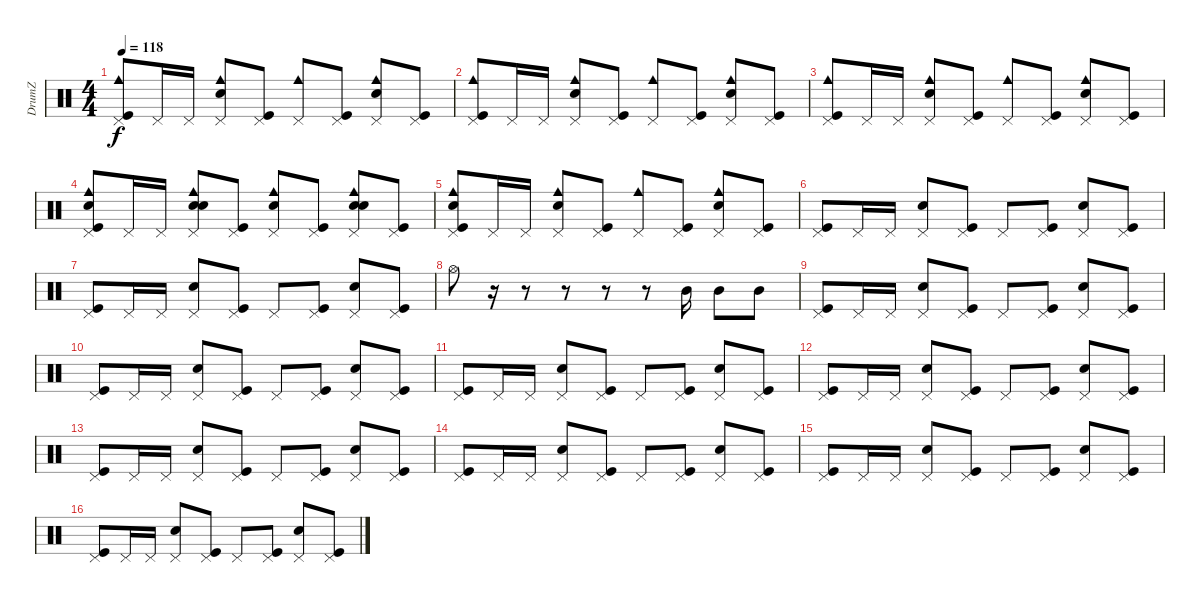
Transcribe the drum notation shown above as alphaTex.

\track ("DrumZ" "DrumZ") {instrument percussion}
\staff {score}
\articulation defaults
\ts (4 4)
\tempo 118
\clef neutral
\ks c
("Cowbell medium (hit)" "Pedal Hi-Hat (hit)" "Kick (hit)").8{dy f} "Pedal Hi-Hat (hit)".16 "Pedal Hi-Hat (hit)".16 ("Cowbell medium (hit)" "Pedal Hi-Hat (hit)" "Snare (hit) 2").8 ("Pedal Hi-Hat (hit)" "Kick (hit)").8 ("Cowbell medium (hit)" "Pedal Hi-Hat (hit)").8 ("Pedal Hi-Hat (hit)" "Kick (hit)").8 ("Cowbell medium (hit)" "Pedal Hi-Hat (hit)" "Snare (hit) 2").8 ("Pedal Hi-Hat (hit)" "Kick (hit)").8 |
("Cowbell medium (hit)" "Pedal Hi-Hat (hit)" "Kick (hit)").8 "Pedal Hi-Hat (hit)".16 "Pedal Hi-Hat (hit)".16 ("Cowbell medium (hit)" "Pedal Hi-Hat (hit)" "Snare (hit) 2").8 ("Pedal Hi-Hat (hit)" "Kick (hit)").8 ("Cowbell medium (hit)" "Pedal Hi-Hat (hit)").8 ("Pedal Hi-Hat (hit)" "Kick (hit)").8 ("Cowbell medium (hit)" "Pedal Hi-Hat (hit)" "Snare (hit) 2").8 ("Pedal Hi-Hat (hit)" "Kick (hit)").8 |
("Cowbell medium (hit)" "Pedal Hi-Hat (hit)" "Kick (hit)").8 "Pedal Hi-Hat (hit)".16 "Pedal Hi-Hat (hit)".16 ("Cowbell medium (hit)" "Pedal Hi-Hat (hit)" "Snare (hit) 2").8 ("Pedal Hi-Hat (hit)" "Kick (hit)").8 ("Cowbell medium (hit)" "Pedal Hi-Hat (hit)").8 ("Pedal Hi-Hat (hit)" "Kick (hit)").8 ("Cowbell medium (hit)" "Pedal Hi-Hat (hit)" "Snare (hit) 2").8 ("Pedal Hi-Hat (hit)" "Kick (hit)").8 |
("Hand Clap (hit)" "Cowbell medium (hit)" "Pedal Hi-Hat (hit)" "Kick (hit)").8 "Pedal Hi-Hat (hit)".16 "Pedal Hi-Hat (hit)".16 ("Hand Clap (hit)" "Cowbell medium (hit)" "Pedal Hi-Hat (hit)" "Snare (hit) 2").8 ("Pedal Hi-Hat (hit)" "Kick (hit)").8 ("Hand Clap (hit)" "Cowbell medium (hit)" "Pedal Hi-Hat (hit)").8 ("Pedal Hi-Hat (hit)" "Kick (hit)").8 ("Hand Clap (hit)" "Cowbell medium (hit)" "Pedal Hi-Hat (hit)" "Snare (hit) 2").8 ("Pedal Hi-Hat (hit)" "Kick (hit)").8 |
("Hand Clap (hit)" "Cowbell medium (hit)" "Pedal Hi-Hat (hit)" "Kick (hit)").8 "Pedal Hi-Hat (hit)".16 "Pedal Hi-Hat (hit)".16 ("Cowbell medium (hit)" "Pedal Hi-Hat (hit)" "Snare (hit) 2").8 ("Pedal Hi-Hat (hit)" "Kick (hit)").8 ("Cowbell medium (hit)" "Pedal Hi-Hat (hit)").8 ("Pedal Hi-Hat (hit)" "Kick (hit)").8 ("Cowbell medium (hit)" "Pedal Hi-Hat (hit)" "Snare (hit) 2").8 ("Pedal Hi-Hat (hit)" "Kick (hit)").8 |
("Pedal Hi-Hat (hit)" "Kick (hit)").8 "Pedal Hi-Hat (hit)".16 "Pedal Hi-Hat (hit)".16 ("Pedal Hi-Hat (hit)" "Snare (hit) 2").8 ("Pedal Hi-Hat (hit)" "Kick (hit)").8 "Pedal Hi-Hat (hit)".8 ("Pedal Hi-Hat (hit)" "Kick (hit)").8 ("Pedal Hi-Hat (hit)" "Snare (hit) 2").8 ("Pedal Hi-Hat (hit)" "Kick (hit)").8 |
("Pedal Hi-Hat (hit)" "Kick (hit)").8 "Pedal Hi-Hat (hit)".16 "Pedal Hi-Hat (hit)".16 ("Pedal Hi-Hat (hit)" "Snare (hit) 2").8 ("Pedal Hi-Hat (hit)" "Kick (hit)").8 "Pedal Hi-Hat (hit)".8 ("Pedal Hi-Hat (hit)" "Kick (hit)").8 ("Pedal Hi-Hat (hit)" "Snare (hit) 2").8 ("Pedal Hi-Hat (hit)" "Kick (hit)").8 |
"Hi-Hat (open)".8 r.16 r.8 r.8 r.8 r.8 "Mid Tom (hit)".16 "Mid Tom (hit)".8 "Mid Tom (hit)".8 |
("Pedal Hi-Hat (hit)" "Kick (hit)").8 "Pedal Hi-Hat (hit)".16 "Pedal Hi-Hat (hit)".16 ("Pedal Hi-Hat (hit)" "Snare (hit) 2").8 ("Pedal Hi-Hat (hit)" "Kick (hit)").8 "Pedal Hi-Hat (hit)".8 ("Pedal Hi-Hat (hit)" "Kick (hit)").8 ("Pedal Hi-Hat (hit)" "Snare (hit) 2").8 ("Pedal Hi-Hat (hit)" "Kick (hit)").8 |
("Pedal Hi-Hat (hit)" "Kick (hit)").8 "Pedal Hi-Hat (hit)".16 "Pedal Hi-Hat (hit)".16 ("Pedal Hi-Hat (hit)" "Snare (hit) 2").8 ("Pedal Hi-Hat (hit)" "Kick (hit)").8 "Pedal Hi-Hat (hit)".8 ("Pedal Hi-Hat (hit)" "Kick (hit)").8 ("Pedal Hi-Hat (hit)" "Snare (hit) 2").8 ("Pedal Hi-Hat (hit)" "Kick (hit)").8 |
("Pedal Hi-Hat (hit)" "Kick (hit)").8 "Pedal Hi-Hat (hit)".16 "Pedal Hi-Hat (hit)".16 ("Pedal Hi-Hat (hit)" "Snare (hit) 2").8 ("Pedal Hi-Hat (hit)" "Kick (hit)").8 "Pedal Hi-Hat (hit)".8 ("Pedal Hi-Hat (hit)" "Kick (hit)").8 ("Pedal Hi-Hat (hit)" "Snare (hit) 2").8 ("Pedal Hi-Hat (hit)" "Kick (hit)").8 |
("Pedal Hi-Hat (hit)" "Kick (hit)").8 "Pedal Hi-Hat (hit)".16 "Pedal Hi-Hat (hit)".16 ("Pedal Hi-Hat (hit)" "Snare (hit) 2").8 ("Pedal Hi-Hat (hit)" "Kick (hit)").8 "Pedal Hi-Hat (hit)".8 ("Pedal Hi-Hat (hit)" "Kick (hit)").8 ("Pedal Hi-Hat (hit)" "Snare (hit) 2").8 ("Pedal Hi-Hat (hit)" "Kick (hit)").8 |
("Pedal Hi-Hat (hit)" "Kick (hit)").8 "Pedal Hi-Hat (hit)".16 "Pedal Hi-Hat (hit)".16 ("Pedal Hi-Hat (hit)" "Snare (hit) 2").8 ("Pedal Hi-Hat (hit)" "Kick (hit)").8 "Pedal Hi-Hat (hit)".8 ("Pedal Hi-Hat (hit)" "Kick (hit)").8 ("Pedal Hi-Hat (hit)" "Snare (hit) 2").8 ("Pedal Hi-Hat (hit)" "Kick (hit)").8 |
("Pedal Hi-Hat (hit)" "Kick (hit)").8 "Pedal Hi-Hat (hit)".16 "Pedal Hi-Hat (hit)".16 ("Pedal Hi-Hat (hit)" "Snare (hit) 2").8 ("Pedal Hi-Hat (hit)" "Kick (hit)").8 "Pedal Hi-Hat (hit)".8 ("Pedal Hi-Hat (hit)" "Kick (hit)").8 ("Pedal Hi-Hat (hit)" "Snare (hit) 2").8 ("Pedal Hi-Hat (hit)" "Kick (hit)").8 |
("Pedal Hi-Hat (hit)" "Kick (hit)").8 "Pedal Hi-Hat (hit)".16 "Pedal Hi-Hat (hit)".16 ("Pedal Hi-Hat (hit)" "Snare (hit) 2").8 ("Pedal Hi-Hat (hit)" "Kick (hit)").8 "Pedal Hi-Hat (hit)".8 ("Pedal Hi-Hat (hit)" "Kick (hit)").8 ("Pedal Hi-Hat (hit)" "Snare (hit) 2").8 ("Pedal Hi-Hat (hit)" "Kick (hit)").8 |
("Pedal Hi-Hat (hit)" "Kick (hit)").8 "Pedal Hi-Hat (hit)".16 "Pedal Hi-Hat (hit)".16 ("Pedal Hi-Hat (hit)" "Snare (hit) 2").8 ("Pedal Hi-Hat (hit)" "Kick (hit)").8 "Pedal Hi-Hat (hit)".8 ("Pedal Hi-Hat (hit)" "Kick (hit)").8 ("Pedal Hi-Hat (hit)" "Snare (hit) 2").8 ("Pedal Hi-Hat (hit)" "Kick (hit)").8
